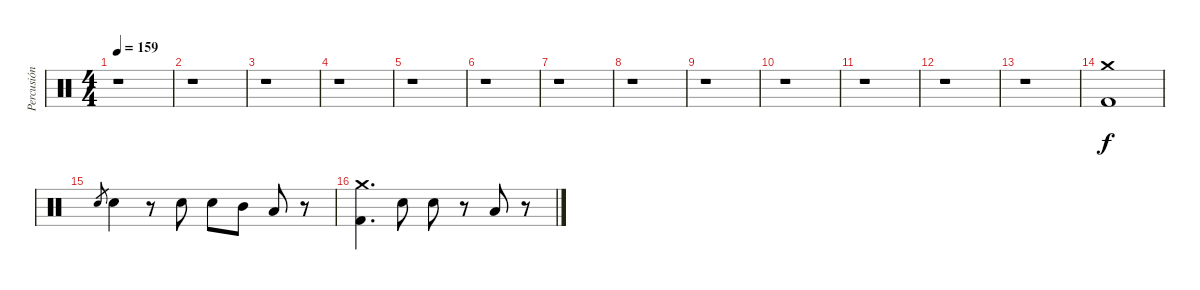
\track ("Percusión" "Percusión") {instrument percussion}
\staff {score}
\articulation defaults
\ts (4 4)
\tempo 159
\clef neutral
\ks c
r.1{dy f} |
r.1 |
r.1 |
r.1 |
r.1 |
r.1 |
r.1 |
r.1 |
r.1 |
r.1 |
r.1 |
r.1 |
r.1 |
("Crash medium (hit)" "Kick (hit) 2").1 |
"Electric Snare (hit)".8{gr} "Electric Snare (hit)".4 r.8 "Electric Snare (hit)".8 "Electric Snare (hit)".8 "Mid Tom (hit)".8 "Low Tom (hit)".8 r.8 |
("Crash medium (hit)" "Kick (hit) 2").4{d} "Electric Snare (hit)".8 "Electric Snare (hit)".8 r.8 "Low Tom (hit)".8 r.8
